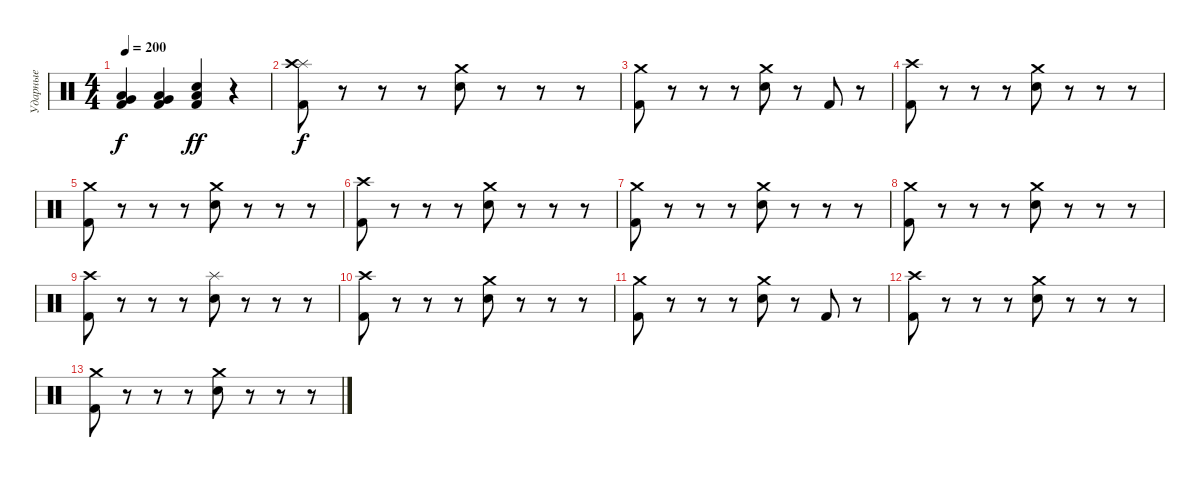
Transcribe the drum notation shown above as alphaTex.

\track ("Ударные" "Ударные") {instrument percussion}
\staff {score}
\articulation defaults
\ts (4 4)
\tempo 200
\clef neutral
\ks c
("Kick (hit) 2" "Low Floor Tom (hit)" "Very Low Tom (hit)").4{dy f} ("Kick (hit) 2" "Low Floor Tom (hit)" "Very Low Tom (hit)").4 ("Kick (hit) 2" "Low Floor Tom (hit)" "Electric Snare (hit)").4{dy ff} r.4 |
("Kick (hit) 2" "Splash (hit)" "Crash high (hit)").8{dy f} r.8 r.8 r.8 ("Electric Snare (hit)" "Crash medium (hit)").8 r.8 r.8 r.8 |
("Kick (hit) 2" "Crash medium (hit)").8 r.8 r.8 r.8 ("Electric Snare (hit)" "Crash medium (hit)").8 r.8 "Kick (hit) 2".8 r.8 |
("Kick (hit) 2" "Crash high (hit)").8 r.8 r.8 r.8 ("Electric Snare (hit)" "Crash medium (hit)").8 r.8 r.8 r.8 |
("Kick (hit) 2" "Crash medium (hit)").8 r.8 r.8 r.8 ("Electric Snare (hit)" "Crash medium (hit)").8 r.8 r.8 r.8 |
("Kick (hit) 2" "Crash high (hit)").8 r.8 r.8 r.8 ("Electric Snare (hit)" "Crash medium (hit)").8 r.8 r.8 r.8 |
("Kick (hit) 2" "Crash medium (hit)").8 r.8 r.8 r.8 ("Electric Snare (hit)" "Crash medium (hit)").8 r.8 r.8 r.8 |
("Kick (hit) 2" "Crash medium (hit)").8 r.8 r.8 r.8 ("Electric Snare (hit)" "Crash medium (hit)").8 r.8 r.8 r.8 |
("Kick (hit) 2" "Crash high (hit)").8 r.8 r.8 r.8 ("Electric Snare (hit)" "Splash (hit)").8 r.8 r.8 r.8 |
("Kick (hit) 2" "Crash high (hit)").8 r.8 r.8 r.8 ("Electric Snare (hit)" "Crash medium (hit)").8 r.8 r.8 r.8 |
("Kick (hit) 2" "Crash medium (hit)").8 r.8 r.8 r.8 ("Electric Snare (hit)" "Crash medium (hit)").8 r.8 "Kick (hit) 2".8 r.8 |
("Kick (hit) 2" "Crash high (hit)").8 r.8 r.8 r.8 ("Electric Snare (hit)" "Crash medium (hit)").8 r.8 r.8 r.8 |
("Kick (hit) 2" "Crash medium (hit)").8 r.8 r.8 r.8 ("Electric Snare (hit)" "Crash medium (hit)").8 r.8 r.8 r.8
